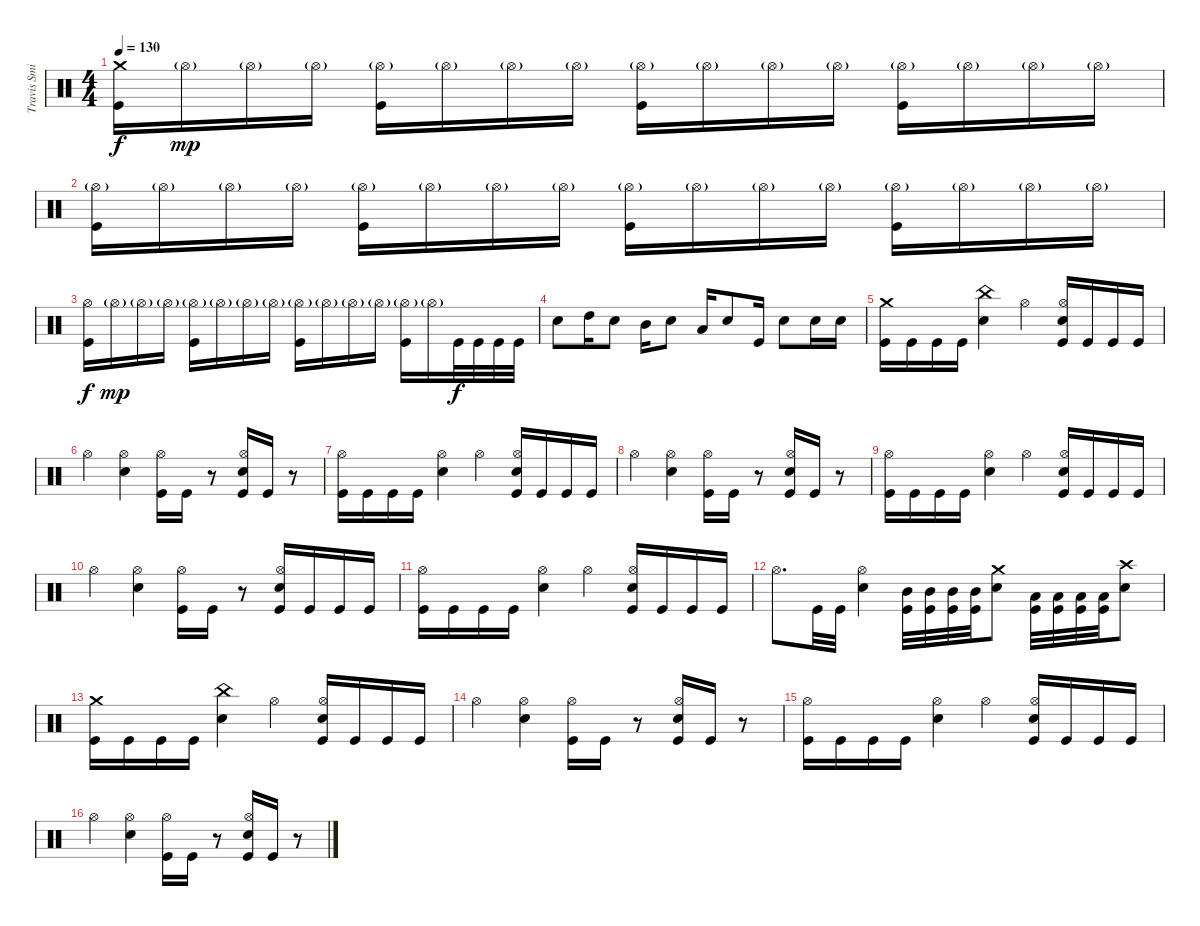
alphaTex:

\track ("Travis Smith" "Travis Smi") {instrument percussion}
\staff {score}
\articulation defaults
\ts (4 4)
\tempo 130
\clef neutral
\ks c
("Crash medium (hit)" "Kick (hit)").16{dy f} "Hi-Hat (open)"{g}.16{dy mp} "Hi-Hat (open)"{g}.16 "Hi-Hat (open)"{g}.16 ("Hi-Hat (open)"{g} "Kick (hit)").16 "Hi-Hat (open)"{g}.16 "Hi-Hat (open)"{g}.16 "Hi-Hat (open)"{g}.16 ("Hi-Hat (open)"{g} "Kick (hit)").16 "Hi-Hat (open)"{g}.16 "Hi-Hat (open)"{g}.16 "Hi-Hat (open)"{g}.16 ("Hi-Hat (open)"{g} "Kick (hit)").16 "Hi-Hat (open)"{g}.16 "Hi-Hat (open)"{g}.16 "Hi-Hat (open)"{g}.16 |
("Hi-Hat (open)"{g} "Kick (hit)").16 "Hi-Hat (open)"{g}.16 "Hi-Hat (open)"{g}.16 "Hi-Hat (open)"{g}.16 ("Hi-Hat (open)"{g} "Kick (hit)").16 "Hi-Hat (open)"{g}.16 "Hi-Hat (open)"{g}.16 "Hi-Hat (open)"{g}.16 ("Hi-Hat (open)"{g} "Kick (hit)").16 "Hi-Hat (open)"{g}.16 "Hi-Hat (open)"{g}.16 "Hi-Hat (open)"{g}.16 ("Hi-Hat (open)"{g} "Kick (hit)").16 "Hi-Hat (open)"{g}.16 "Hi-Hat (open)"{g}.16 "Hi-Hat (open)"{g}.16 |
("Hi-Hat (open)" "Kick (hit)").16{dy f} "Hi-Hat (open)"{g}.16{dy mp} "Hi-Hat (open)"{g}.16 "Hi-Hat (open)"{g}.16 ("Hi-Hat (open)"{g} "Kick (hit)").16 "Hi-Hat (open)"{g}.16 "Hi-Hat (open)"{g}.16 "Hi-Hat (open)"{g}.16 ("Hi-Hat (open)"{g} "Kick (hit)").16 "Hi-Hat (open)"{g}.16 "Hi-Hat (open)"{g}.16 "Hi-Hat (open)"{g}.16 ("Hi-Hat (open)"{g} "Kick (hit)").16 "Hi-Hat (open)"{g}.16 "Kick (hit)".32{dy f} "Kick (hit)".32 "Kick (hit)".32 "Kick (hit)".32 |
"Snare (hit) 2".8 "High Tom (hit)".16 "Snare (hit) 2".8 "Mid Tom (hit)".16 "Snare (hit) 2".8 "Low Tom (hit)".16 "Snare (hit) 2".8 "Kick (hit)".16 "Snare (hit) 2".8 "Snare (hit) 2".16 "Snare (hit) 2".16 |
("Crash medium (hit)" "Kick (hit)").16 "Kick (hit)".16 "Kick (hit)".16 "Kick (hit)".16 ("China (hit)" "Snare (hit) 2").4 "Hi-Hat (open)".4 ("Hi-Hat (open)" "Snare (hit) 2" "Kick (hit)").16 "Kick (hit)".16 "Kick (hit)".16 "Kick (hit)".16 |
"Hi-Hat (open)".4 ("Hi-Hat (open)" "Snare (hit) 2").4 ("Hi-Hat (open)" "Kick (hit)").16 "Kick (hit)".16 r.8 ("Hi-Hat (open)" "Snare (hit) 2" "Kick (hit)").16 "Kick (hit)".16 r.8 |
("Hi-Hat (open)" "Kick (hit)").16 "Kick (hit)".16 "Kick (hit)".16 "Kick (hit)".16 ("Hi-Hat (open)" "Snare (hit) 2").4 "Hi-Hat (open)".4 ("Hi-Hat (open)" "Snare (hit) 2" "Kick (hit)").16 "Kick (hit)".16 "Kick (hit)".16 "Kick (hit)".16 |
"Hi-Hat (open)".4 ("Hi-Hat (open)" "Snare (hit) 2").4 ("Hi-Hat (open)" "Kick (hit)").16 "Kick (hit)".16 r.8 ("Hi-Hat (open)" "Snare (hit) 2" "Kick (hit)").16 "Kick (hit)".16 r.8 |
("Hi-Hat (open)" "Kick (hit)").16 "Kick (hit)".16 "Kick (hit)".16 "Kick (hit)".16 ("Hi-Hat (open)" "Snare (hit) 2").4 "Hi-Hat (open)".4 ("Hi-Hat (open)" "Snare (hit) 2" "Kick (hit)").16 "Kick (hit)".16 "Kick (hit)".16 "Kick (hit)".16 |
"Hi-Hat (open)".4 ("Hi-Hat (open)" "Snare (hit) 2").4 ("Hi-Hat (open)" "Kick (hit)").16 "Kick (hit)".16 r.8 ("Hi-Hat (open)" "Snare (hit) 2" "Kick (hit)").16 "Kick (hit)".16 "Kick (hit)".16 "Kick (hit)".16 |
("Hi-Hat (open)" "Kick (hit)").16 "Kick (hit)".16 "Kick (hit)".16 "Kick (hit)".16 ("Hi-Hat (open)" "Snare (hit) 2").4 "Hi-Hat (open)".4 ("Hi-Hat (open)" "Snare (hit) 2" "Kick (hit)").16 "Kick (hit)".16 "Kick (hit)".16 "Kick (hit)".16 |
"Hi-Hat (open)".8{d} "Kick (hit)".32 "Kick (hit)".32 ("Hi-Hat (open)" "Snare (hit) 2").4 ("Mid Tom (hit)" "Kick (hit)").32 ("Mid Tom (hit)" "Kick (hit)").32 ("Mid Tom (hit)" "Kick (hit)").32 ("Mid Tom (hit)" "Kick (hit)").32 ("Crash medium (hit)" "Snare (hit) 2").8 ("Low Tom (hit)" "Kick (hit)").32 ("Low Tom (hit)" "Kick (hit)").32 ("Low Tom (hit)" "Kick (hit)").32 ("Low Tom (hit)" "Kick (hit)").32 ("Crash high (hit)" "Snare (hit) 2").8 |
("Crash medium (hit)" "Kick (hit)").16 "Kick (hit)".16 "Kick (hit)".16 "Kick (hit)".16 ("China (hit)" "Snare (hit) 2").4 "Hi-Hat (open)".4 ("Hi-Hat (open)" "Snare (hit) 2" "Kick (hit)").16 "Kick (hit)".16 "Kick (hit)".16 "Kick (hit)".16 |
"Hi-Hat (open)".4 ("Hi-Hat (open)" "Snare (hit) 2").4 ("Hi-Hat (open)" "Kick (hit)").16 "Kick (hit)".16 r.8 ("Hi-Hat (open)" "Snare (hit) 2" "Kick (hit)").16 "Kick (hit)".16 r.8 |
("Hi-Hat (open)" "Kick (hit)").16 "Kick (hit)".16 "Kick (hit)".16 "Kick (hit)".16 ("Hi-Hat (open)" "Snare (hit) 2").4 "Hi-Hat (open)".4 ("Hi-Hat (open)" "Snare (hit) 2" "Kick (hit)").16 "Kick (hit)".16 "Kick (hit)".16 "Kick (hit)".16 |
"Hi-Hat (open)".4 ("Hi-Hat (open)" "Snare (hit) 2").4 ("Hi-Hat (open)" "Kick (hit)").16 "Kick (hit)".16 r.8 ("Hi-Hat (open)" "Snare (hit) 2" "Kick (hit)").16 "Kick (hit)".16 r.8
